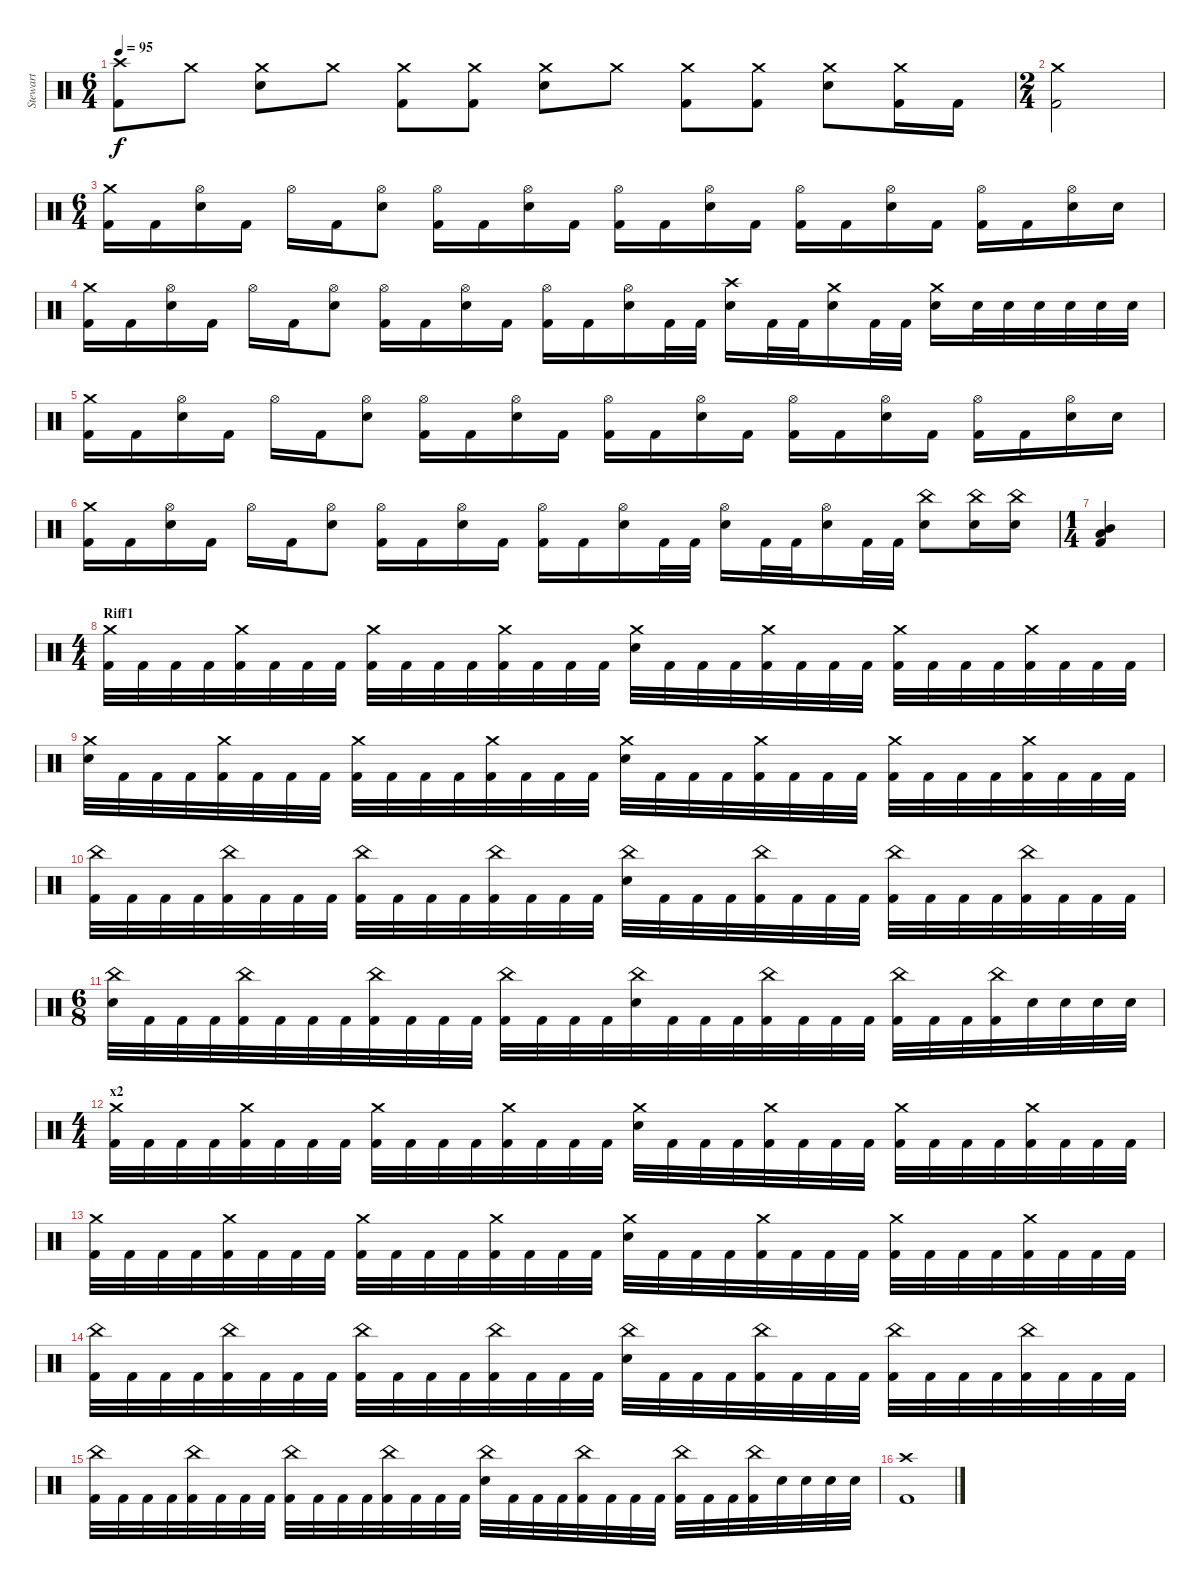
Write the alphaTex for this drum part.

\track ("Stewart" "Stewart") {instrument percussion}
\staff {score}
\articulation defaults
\ts (6 4)
\tempo 95
\clef neutral
\ks c
("Crash high (hit)" "Kick (hit) 2").8{dy f} "Crash medium (hit)".8 ("Crash medium (hit)" "Electric Snare (hit)").8 "Crash medium (hit)".8 ("Crash medium (hit)" "Kick (hit) 2").8 ("Crash medium (hit)" "Kick (hit) 2").8 ("Crash medium (hit)" "Electric Snare (hit)").8 "Crash medium (hit)".8 ("Crash medium (hit)" "Kick (hit) 2").8 ("Crash medium (hit)" "Kick (hit) 2").8 ("Crash medium (hit)" "Electric Snare (hit)").8 ("Crash medium (hit)" "Kick (hit) 2").16 "Kick (hit) 2".16 |
\ts (2 4)
("Crash medium (hit)" "Kick (hit) 2").2 |
\ts (6 4)
("Crash medium (hit)" "Kick (hit) 2").16 "Kick (hit) 2".16 ("Hi-Hat (open)" "Electric Snare (hit)").16 "Kick (hit) 2".16 "Hi-Hat (open)".16 "Kick (hit) 2".16 ("Hi-Hat (open)" "Electric Snare (hit)").8 ("Hi-Hat (open)" "Kick (hit) 2").16 "Kick (hit) 2".16 ("Hi-Hat (open)" "Electric Snare (hit)").16 "Kick (hit) 2".16 ("Hi-Hat (open)" "Kick (hit) 2").16 "Kick (hit) 2".16 ("Hi-Hat (open)" "Electric Snare (hit)").16 "Kick (hit) 2".16 ("Hi-Hat (open)" "Kick (hit) 2").16 "Kick (hit) 2".16 ("Hi-Hat (open)" "Electric Snare (hit)").16 "Kick (hit) 2".16 ("Hi-Hat (open)" "Kick (hit) 2").16 "Kick (hit) 2".16 ("Hi-Hat (open)" "Electric Snare (hit)").16 "Electric Snare (hit)".16 |
("Crash medium (hit)" "Kick (hit) 2").16 "Kick (hit) 2".16 ("Hi-Hat (open)" "Electric Snare (hit)").16 "Kick (hit) 2".16 "Hi-Hat (open)".16 "Kick (hit) 2".16 ("Hi-Hat (open)" "Electric Snare (hit)").8 ("Hi-Hat (open)" "Kick (hit) 2").16 "Kick (hit) 2".16 ("Hi-Hat (open)" "Electric Snare (hit)").16 "Kick (hit) 2".16 ("Hi-Hat (open)" "Kick (hit) 2").16 "Kick (hit) 2".16 ("Hi-Hat (open)" "Electric Snare (hit)").16 "Kick (hit) 2".32 "Kick (hit) 2".32 ("Crash high (hit)" "Electric Snare (hit)").16 "Kick (hit) 2".32 "Kick (hit) 2".32 ("Crash medium (hit)" "Electric Snare (hit)").16 "Kick (hit) 2".32 "Kick (hit) 2".32 ("Crash medium (hit)" "Electric Snare (hit)").16 "Electric Snare (hit)".32 "Electric Snare (hit)".32 "Electric Snare (hit)".32 "Electric Snare (hit)".32 "Electric Snare (hit)".32 "Electric Snare (hit)".32 |
("Crash medium (hit)" "Kick (hit) 2").16 "Kick (hit) 2".16 ("Hi-Hat (open)" "Electric Snare (hit)").16 "Kick (hit) 2".16 "Hi-Hat (open)".16 "Kick (hit) 2".16 ("Hi-Hat (open)" "Electric Snare (hit)").8 ("Hi-Hat (open)" "Kick (hit) 2").16 "Kick (hit) 2".16 ("Hi-Hat (open)" "Electric Snare (hit)").16 "Kick (hit) 2".16 ("Hi-Hat (open)" "Kick (hit) 2").16 "Kick (hit) 2".16 ("Hi-Hat (open)" "Electric Snare (hit)").16 "Kick (hit) 2".16 ("Hi-Hat (open)" "Kick (hit) 2").16 "Kick (hit) 2".16 ("Hi-Hat (open)" "Electric Snare (hit)").16 "Kick (hit) 2".16 ("Hi-Hat (open)" "Kick (hit) 2").16 "Kick (hit) 2".16 ("Hi-Hat (open)" "Electric Snare (hit)").16 "Electric Snare (hit)".16 |
("Crash medium (hit)" "Kick (hit) 2").16 "Kick (hit) 2".16 ("Hi-Hat (open)" "Electric Snare (hit)").16 "Kick (hit) 2".16 "Hi-Hat (open)".16 "Kick (hit) 2".16 ("Hi-Hat (open)" "Electric Snare (hit)").8 ("Hi-Hat (open)" "Kick (hit) 2").16 "Kick (hit) 2".16 ("Hi-Hat (open)" "Electric Snare (hit)").16 "Kick (hit) 2".16 ("Hi-Hat (open)" "Kick (hit) 2").16 "Kick (hit) 2".16 ("Hi-Hat (open)" "Electric Snare (hit)").16 "Kick (hit) 2".32 "Kick (hit) 2".32 ("Hi-Hat (open)" "Electric Snare (hit)").16 "Kick (hit) 2".32 "Kick (hit) 2".32 ("Hi-Hat (open)" "Electric Snare (hit)").16 "Kick (hit) 2".32 "Kick (hit) 2".32 ("China (hit)" "Electric Snare (hit)").8 ("China (hit)" "Electric Snare (hit)").16 ("China (hit)" "Electric Snare (hit)").16 |
\ts (1 4)
("Mid Tom (hit)" "Low Tom (hit)" "Kick (hit) 2").4 |
\ts (4 4)
\section ("" "Riff1")
("Crash medium (hit)" "Kick (hit) 2").32 "Kick (hit) 2".32 "Kick (hit) 2".32 "Kick (hit) 2".32 ("Crash medium (hit)" "Kick (hit) 2").32 "Kick (hit) 2".32 "Kick (hit) 2".32 "Kick (hit) 2".32 ("Crash medium (hit)" "Kick (hit) 2").32 "Kick (hit) 2".32 "Kick (hit) 2".32 "Kick (hit) 2".32 ("Crash medium (hit)" "Kick (hit) 2").32 "Kick (hit) 2".32 "Kick (hit) 2".32 "Kick (hit) 2".32 ("Crash medium (hit)" "Electric Snare (hit)").32 "Kick (hit) 2".32 "Kick (hit) 2".32 "Kick (hit) 2".32 ("Crash medium (hit)" "Kick (hit) 2").32 "Kick (hit) 2".32 "Kick (hit) 2".32 "Kick (hit) 2".32 ("Crash medium (hit)" "Kick (hit) 2").32 "Kick (hit) 2".32 "Kick (hit) 2".32 "Kick (hit) 2".32 ("Crash medium (hit)" "Kick (hit) 2").32 "Kick (hit) 2".32 "Kick (hit) 2".32 "Kick (hit) 2".32 |
("Crash medium (hit)" "Electric Snare (hit)").32 "Kick (hit) 2".32 "Kick (hit) 2".32 "Kick (hit) 2".32 ("Crash medium (hit)" "Kick (hit) 2").32 "Kick (hit) 2".32 "Kick (hit) 2".32 "Kick (hit) 2".32 ("Crash medium (hit)" "Kick (hit) 2").32 "Kick (hit) 2".32 "Kick (hit) 2".32 "Kick (hit) 2".32 ("Crash medium (hit)" "Kick (hit) 2").32 "Kick (hit) 2".32 "Kick (hit) 2".32 "Kick (hit) 2".32 ("Crash medium (hit)" "Electric Snare (hit)").32 "Kick (hit) 2".32 "Kick (hit) 2".32 "Kick (hit) 2".32 ("Crash medium (hit)" "Kick (hit) 2").32 "Kick (hit) 2".32 "Kick (hit) 2".32 "Kick (hit) 2".32 ("Crash medium (hit)" "Kick (hit) 2").32 "Kick (hit) 2".32 "Kick (hit) 2".32 "Kick (hit) 2".32 ("Crash medium (hit)" "Kick (hit) 2").32 "Kick (hit) 2".32 "Kick (hit) 2".32 "Kick (hit) 2".32 |
("China (hit)" "Kick (hit) 2").32 "Kick (hit) 2".32 "Kick (hit) 2".32 "Kick (hit) 2".32 ("China (hit)" "Kick (hit) 2").32 "Kick (hit) 2".32 "Kick (hit) 2".32 "Kick (hit) 2".32 ("China (hit)" "Kick (hit) 2").32 "Kick (hit) 2".32 "Kick (hit) 2".32 "Kick (hit) 2".32 ("China (hit)" "Kick (hit) 2").32 "Kick (hit) 2".32 "Kick (hit) 2".32 "Kick (hit) 2".32 ("China (hit)" "Electric Snare (hit)").32 "Kick (hit) 2".32 "Kick (hit) 2".32 "Kick (hit) 2".32 ("China (hit)" "Kick (hit) 2").32 "Kick (hit) 2".32 "Kick (hit) 2".32 "Kick (hit) 2".32 ("China (hit)" "Kick (hit) 2").32 "Kick (hit) 2".32 "Kick (hit) 2".32 "Kick (hit) 2".32 ("China (hit)" "Kick (hit) 2").32 "Kick (hit) 2".32 "Kick (hit) 2".32 "Kick (hit) 2".32 |
\ts (6 8)
("China (hit)" "Electric Snare (hit)").32 "Kick (hit) 2".32 "Kick (hit) 2".32 "Kick (hit) 2".32 ("China (hit)" "Kick (hit) 2").32 "Kick (hit) 2".32 "Kick (hit) 2".32 "Kick (hit) 2".32 ("China (hit)" "Kick (hit) 2").32 "Kick (hit) 2".32 "Kick (hit) 2".32 "Kick (hit) 2".32 ("China (hit)" "Kick (hit) 2").32 "Kick (hit) 2".32 "Kick (hit) 2".32 "Kick (hit) 2".32 ("China (hit)" "Electric Snare (hit)").32 "Kick (hit) 2".32 "Kick (hit) 2".32 "Kick (hit) 2".32 ("China (hit)" "Kick (hit) 2").32 "Kick (hit) 2".32 "Kick (hit) 2".32 "Kick (hit) 2".32 ("China (hit)" "Kick (hit) 2").32 "Kick (hit) 2".32 "Kick (hit) 2".32 ("China (hit)" "Kick (hit) 2").32 "Electric Snare (hit)".32 "Electric Snare (hit)".32 "Electric Snare (hit)".32 "Electric Snare (hit)".32 |
\ts (4 4)
\section ("" "x2")
("Crash medium (hit)" "Kick (hit) 2").32 "Kick (hit) 2".32 "Kick (hit) 2".32 "Kick (hit) 2".32 ("Crash medium (hit)" "Kick (hit) 2").32 "Kick (hit) 2".32 "Kick (hit) 2".32 "Kick (hit) 2".32 ("Crash medium (hit)" "Kick (hit) 2").32 "Kick (hit) 2".32 "Kick (hit) 2".32 "Kick (hit) 2".32 ("Crash medium (hit)" "Kick (hit) 2").32 "Kick (hit) 2".32 "Kick (hit) 2".32 "Kick (hit) 2".32 ("Crash medium (hit)" "Electric Snare (hit)").32 "Kick (hit) 2".32 "Kick (hit) 2".32 "Kick (hit) 2".32 ("Crash medium (hit)" "Kick (hit) 2").32 "Kick (hit) 2".32 "Kick (hit) 2".32 "Kick (hit) 2".32 ("Crash medium (hit)" "Kick (hit) 2").32 "Kick (hit) 2".32 "Kick (hit) 2".32 "Kick (hit) 2".32 ("Crash medium (hit)" "Kick (hit) 2").32 "Kick (hit) 2".32 "Kick (hit) 2".32 "Kick (hit) 2".32 |
("Crash medium (hit)" "Kick (hit) 2").32 "Kick (hit) 2".32 "Kick (hit) 2".32 "Kick (hit) 2".32 ("Crash medium (hit)" "Kick (hit) 2").32 "Kick (hit) 2".32 "Kick (hit) 2".32 "Kick (hit) 2".32 ("Crash medium (hit)" "Kick (hit) 2").32 "Kick (hit) 2".32 "Kick (hit) 2".32 "Kick (hit) 2".32 ("Crash medium (hit)" "Kick (hit) 2").32 "Kick (hit) 2".32 "Kick (hit) 2".32 "Kick (hit) 2".32 ("Crash medium (hit)" "Electric Snare (hit)").32 "Kick (hit) 2".32 "Kick (hit) 2".32 "Kick (hit) 2".32 ("Crash medium (hit)" "Kick (hit) 2").32 "Kick (hit) 2".32 "Kick (hit) 2".32 "Kick (hit) 2".32 ("Crash medium (hit)" "Kick (hit) 2").32 "Kick (hit) 2".32 "Kick (hit) 2".32 "Kick (hit) 2".32 ("Crash medium (hit)" "Kick (hit) 2").32 "Kick (hit) 2".32 "Kick (hit) 2".32 "Kick (hit) 2".32 |
("China (hit)" "Kick (hit) 2").32 "Kick (hit) 2".32 "Kick (hit) 2".32 "Kick (hit) 2".32 ("China (hit)" "Kick (hit) 2").32 "Kick (hit) 2".32 "Kick (hit) 2".32 "Kick (hit) 2".32 ("China (hit)" "Kick (hit) 2").32 "Kick (hit) 2".32 "Kick (hit) 2".32 "Kick (hit) 2".32 ("China (hit)" "Kick (hit) 2").32 "Kick (hit) 2".32 "Kick (hit) 2".32 "Kick (hit) 2".32 ("China (hit)" "Electric Snare (hit)").32 "Kick (hit) 2".32 "Kick (hit) 2".32 "Kick (hit) 2".32 ("China (hit)" "Kick (hit) 2").32 "Kick (hit) 2".32 "Kick (hit) 2".32 "Kick (hit) 2".32 ("China (hit)" "Kick (hit) 2").32 "Kick (hit) 2".32 "Kick (hit) 2".32 "Kick (hit) 2".32 ("China (hit)" "Kick (hit) 2").32 "Kick (hit) 2".32 "Kick (hit) 2".32 "Kick (hit) 2".32 |
("China (hit)" "Kick (hit) 2").32 "Kick (hit) 2".32 "Kick (hit) 2".32 "Kick (hit) 2".32 ("China (hit)" "Kick (hit) 2").32 "Kick (hit) 2".32 "Kick (hit) 2".32 "Kick (hit) 2".32 ("China (hit)" "Kick (hit) 2").32 "Kick (hit) 2".32 "Kick (hit) 2".32 "Kick (hit) 2".32 ("China (hit)" "Kick (hit) 2").32 "Kick (hit) 2".32 "Kick (hit) 2".32 "Kick (hit) 2".32 ("China (hit)" "Electric Snare (hit)").32 "Kick (hit) 2".32 "Kick (hit) 2".32 "Kick (hit) 2".32 ("China (hit)" "Kick (hit) 2").32 "Kick (hit) 2".32 "Kick (hit) 2".32 "Kick (hit) 2".32 ("China (hit)" "Kick (hit) 2").32 "Kick (hit) 2".32 "Kick (hit) 2".32 ("China (hit)" "Kick (hit) 2").32 "Electric Snare (hit)".32 "Electric Snare (hit)".32 "Electric Snare (hit)".32 "Electric Snare (hit)".32 |
("Crash high (hit)" "Kick (hit) 2").1
